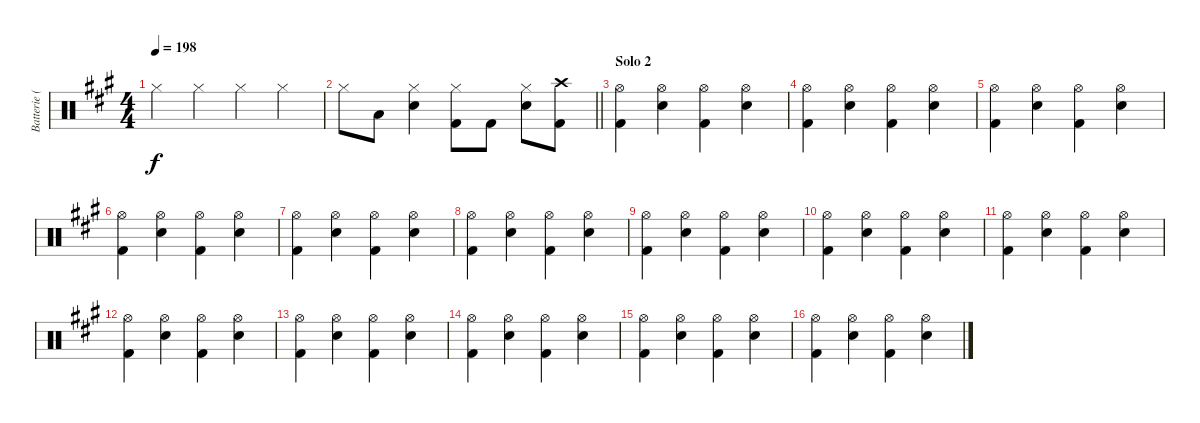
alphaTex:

\track ("Batterie (Phil Roud)" "Batterie (") {instrument percussion}
\staff {score}
\articulation defaults
\ts (4 4)
\tempo 198
\clef neutral
\ks a "Hi-Hat (closed)".4{dy f} "Hi-Hat (closed)".4 "Hi-Hat (closed)".4 "Hi-Hat (closed)".4
|
\barLineRight lightlight "Hi-Hat (closed)".8 "Low Floor Tom (hit)".8
("Snare (hit) 2" "Hi-Hat (closed)").4 ("Kick (hit) 2" "Hi-Hat (closed)").8 "Kick (hit) 2".8 ("Snare (hit) 2" "Hi-Hat (closed)").8 ("Crash high (hit)" "Kick (hit) 2").8 |
\section ("" "Solo 2")
("Hi-Hat (open)" "Kick (hit) 2").4 ("Hi-Hat (open)" "Snare (hit) 2").4 ("Hi-Hat (open)" "Kick (hit) 2").4 ("Hi-Hat (open)" "Snare (hit) 2").4 |
("Hi-Hat (open)" "Kick (hit) 2").4 ("Hi-Hat (open)" "Snare (hit) 2").4 ("Hi-Hat (open)" "Kick (hit) 2").4 ("Hi-Hat (open)" "Snare (hit) 2").4 |
("Hi-Hat (open)" "Kick (hit) 2").4 ("Hi-Hat (open)" "Snare (hit) 2").4 ("Hi-Hat (open)" "Kick (hit) 2").4 ("Hi-Hat (open)" "Snare (hit) 2").4 |
("Hi-Hat (open)" "Kick (hit) 2").4 ("Hi-Hat (open)" "Snare (hit) 2").4 ("Hi-Hat (open)" "Kick (hit) 2").4 ("Hi-Hat (open)" "Snare (hit) 2").4 |
("Hi-Hat (open)" "Kick (hit) 2").4 ("Hi-Hat (open)" "Snare (hit) 2").4 ("Hi-Hat (open)" "Kick (hit) 2").4 ("Hi-Hat (open)" "Snare (hit) 2").4 |
("Hi-Hat (open)" "Kick (hit) 2").4 ("Hi-Hat (open)" "Snare (hit) 2").4 ("Hi-Hat (open)" "Kick (hit) 2").4 ("Hi-Hat (open)" "Snare (hit) 2").4 |
("Hi-Hat (open)" "Kick (hit) 2").4 ("Hi-Hat (open)" "Snare (hit) 2").4 ("Hi-Hat (open)" "Kick (hit) 2").4 ("Hi-Hat (open)" "Snare (hit) 2").4 |
("Hi-Hat (open)" "Kick (hit) 2").4 ("Hi-Hat (open)" "Snare (hit) 2").4 ("Hi-Hat (open)" "Kick (hit) 2").4 ("Hi-Hat (open)" "Snare (hit) 2").4 |
("Hi-Hat (open)" "Kick (hit) 2").4 ("Hi-Hat (open)" "Snare (hit) 2").4 ("Hi-Hat (open)" "Kick (hit) 2").4 ("Hi-Hat (open)" "Snare (hit) 2").4 |
("Hi-Hat (open)" "Kick (hit) 2").4 ("Hi-Hat (open)" "Snare (hit) 2").4 ("Hi-Hat (open)" "Kick (hit) 2").4 ("Hi-Hat (open)" "Snare (hit) 2").4 |
("Hi-Hat (open)" "Kick (hit) 2").4 ("Hi-Hat (open)" "Snare (hit) 2").4 ("Hi-Hat (open)" "Kick (hit) 2").4 ("Hi-Hat (open)" "Snare (hit) 2").4 |
("Hi-Hat (open)" "Kick (hit) 2").4 ("Hi-Hat (open)" "Snare (hit) 2").4 ("Hi-Hat (open)" "Kick (hit) 2").4 ("Hi-Hat (open)" "Snare (hit) 2").4 |
("Hi-Hat (open)" "Kick (hit) 2").4 ("Hi-Hat (open)" "Snare (hit) 2").4 ("Hi-Hat (open)" "Kick (hit) 2").4 ("Hi-Hat (open)" "Snare (hit) 2").4 |
("Hi-Hat (open)" "Kick (hit) 2").4 ("Hi-Hat (open)" "Snare (hit) 2").4 ("Hi-Hat (open)" "Kick (hit) 2").4 ("Hi-Hat (open)" "Snare (hit) 2").4
